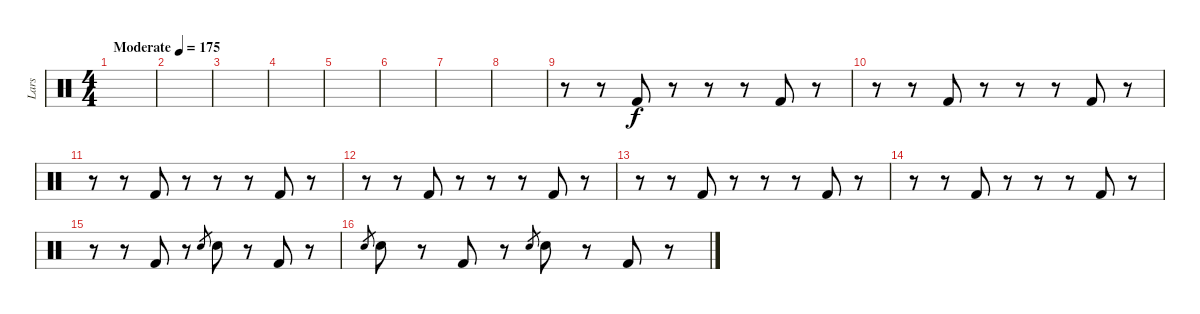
\track ("Lars" "Lars") {instrument percussion}
\staff {score}
\articulation defaults
\ts (4 4)
\tempo (175 "Moderate")
\clef neutral
\ks c
|
|
|
|
|
|
|
|
r.8 r.8 "Kick (hit) 2".8 r.8 r.8 r.8 "Kick (hit) 2".8 r.8 |
r.8 r.8 "Kick (hit) 2".8 r.8 r.8 r.8 "Kick (hit) 2".8 r.8 |
r.8 r.8 "Kick (hit) 2".8 r.8 r.8 r.8 "Kick (hit) 2".8 r.8 |
r.8 r.8 "Kick (hit) 2".8 r.8 r.8 r.8 "Kick (hit) 2".8 r.8 |
r.8 r.8 "Kick (hit) 2".8 r.8 r.8 r.8 "Kick (hit) 2".8 r.8 |
r.8 r.8 "Kick (hit) 2".8 r.8 r.8 r.8 "Kick (hit) 2".8 r.8 |
r.8 r.8 "Kick (hit) 2".8 r.8 "Electric Snare (hit)".8{gr} "Electric Snare (hit)".8 r.8 "Kick (hit) 2".8 r.8 |
"Electric Snare (hit)".8{gr} "Electric Snare (hit)".8 r.8 "Kick (hit) 2".8 r.8 "Electric Snare (hit)".8{gr} "Electric Snare (hit)".8 r.8 "Kick (hit) 2".8 r.8
